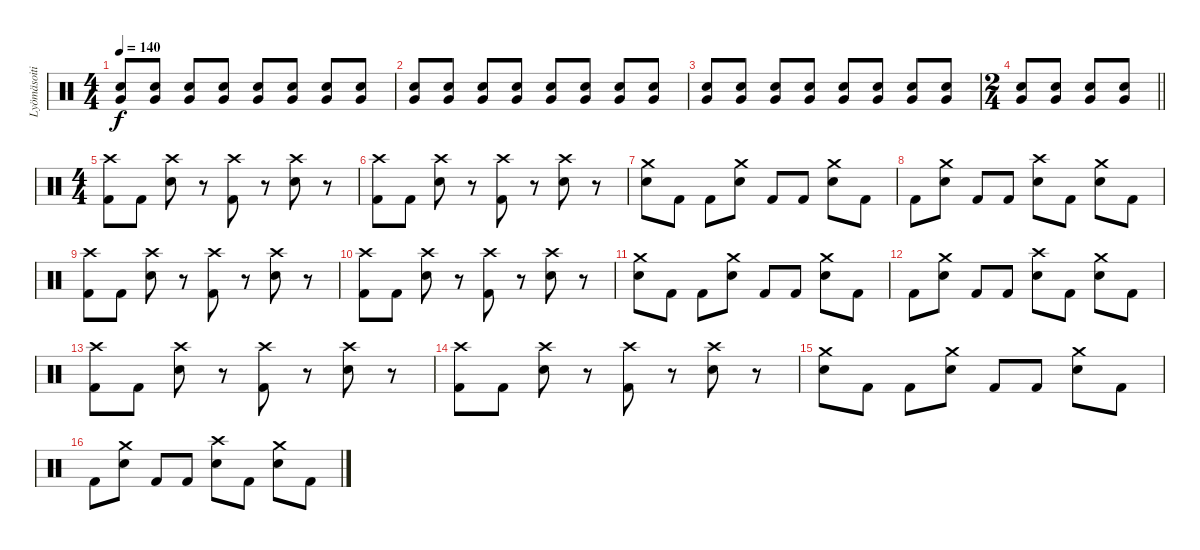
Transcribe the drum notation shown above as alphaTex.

\track ("Lyömäsoitin" "Lyömäsoiti") {instrument percussion}
\staff {score}
\articulation defaults
\ts (4 4)
\tempo 140
\clef neutral
\ks c
("Very Low Tom (hit)" "Electric Snare (hit)").8{dy f} ("Very Low Tom (hit)" "Electric Snare (hit)").8 ("Very Low Tom (hit)" "Electric Snare (hit)").8 ("Very Low Tom (hit)" "Electric Snare (hit)").8 ("Very Low Tom (hit)" "Electric Snare (hit)").8 ("Very Low Tom (hit)" "Electric Snare (hit)").8 ("Very Low Tom (hit)" "Electric Snare (hit)").8 ("Very Low Tom (hit)" "Electric Snare (hit)").8 |
("Very Low Tom (hit)" "Electric Snare (hit)").8 ("Very Low Tom (hit)" "Electric Snare (hit)").8 ("Very Low Tom (hit)" "Electric Snare (hit)").8 ("Very Low Tom (hit)" "Electric Snare (hit)").8 ("Very Low Tom (hit)" "Electric Snare (hit)").8 ("Very Low Tom (hit)" "Electric Snare (hit)").8 ("Very Low Tom (hit)" "Electric Snare (hit)").8 ("Very Low Tom (hit)" "Electric Snare (hit)").8 |
("Very Low Tom (hit)" "Electric Snare (hit)").8 ("Very Low Tom (hit)" "Electric Snare (hit)").8 ("Very Low Tom (hit)" "Electric Snare (hit)").8 ("Very Low Tom (hit)" "Electric Snare (hit)").8 ("Very Low Tom (hit)" "Electric Snare (hit)").8 ("Very Low Tom (hit)" "Electric Snare (hit)").8 ("Very Low Tom (hit)" "Electric Snare (hit)").8 ("Very Low Tom (hit)" "Electric Snare (hit)").8 |
\ts (2 4)
\barLineRight lightlight
("Very Low Tom (hit)" "Electric Snare (hit)").8 ("Very Low Tom (hit)" "Electric Snare (hit)").8 ("Very Low Tom (hit)" "Electric Snare (hit)").8 ("Very Low Tom (hit)" "Electric Snare (hit)").8 |
\ts (4 4)
("Crash high (hit)" "Kick (hit) 2").8 "Kick (hit) 2".8 ("Crash high (hit)" "Electric Snare (hit)").8 r.8 ("Crash high (hit)" "Kick (hit) 2").8 r.8 ("Crash high (hit)" "Electric Snare (hit)").8 r.8 |
("Crash high (hit)" "Kick (hit) 2").8 "Kick (hit) 2".8 ("Crash high (hit)" "Electric Snare (hit)").8 r.8 ("Crash high (hit)" "Kick (hit) 2").8 r.8 ("Crash high (hit)" "Electric Snare (hit)").8 r.8 |
("Crash medium (hit)" "Electric Snare (hit)").8 "Kick (hit) 2".8 "Kick (hit) 2".8 ("Crash medium (hit)" "Electric Snare (hit)").8 "Kick (hit) 2".8 "Kick (hit) 2".8 ("Crash medium (hit)" "Electric Snare (hit)").8 "Kick (hit) 2".8 |
"Kick (hit) 2".8 ("Crash medium (hit)" "Electric Snare (hit)").8 "Kick (hit) 2".8 "Kick (hit) 2".8 ("Crash high (hit)" "Electric Snare (hit)").8 "Kick (hit) 2".8 ("Crash medium (hit)" "Electric Snare (hit)").8 "Kick (hit) 2".8 |
("Crash high (hit)" "Kick (hit) 2").8 "Kick (hit) 2".8 ("Crash high (hit)" "Electric Snare (hit)").8 r.8 ("Crash high (hit)" "Kick (hit) 2").8 r.8 ("Crash high (hit)" "Electric Snare (hit)").8 r.8 |
("Crash high (hit)" "Kick (hit) 2").8 "Kick (hit) 2".8 ("Crash high (hit)" "Electric Snare (hit)").8 r.8 ("Crash high (hit)" "Kick (hit) 2").8 r.8 ("Crash high (hit)" "Electric Snare (hit)").8 r.8 |
("Crash medium (hit)" "Electric Snare (hit)").8 "Kick (hit) 2".8 "Kick (hit) 2".8 ("Crash medium (hit)" "Electric Snare (hit)").8 "Kick (hit) 2".8 "Kick (hit) 2".8 ("Crash medium (hit)" "Electric Snare (hit)").8 "Kick (hit) 2".8 |
"Kick (hit) 2".8 ("Crash medium (hit)" "Electric Snare (hit)").8 "Kick (hit) 2".8 "Kick (hit) 2".8 ("Crash high (hit)" "Electric Snare (hit)").8 "Kick (hit) 2".8 ("Crash medium (hit)" "Electric Snare (hit)").8 "Kick (hit) 2".8 |
("Crash high (hit)" "Kick (hit) 2").8 "Kick (hit) 2".8 ("Crash high (hit)" "Electric Snare (hit)").8 r.8 ("Crash high (hit)" "Kick (hit) 2").8 r.8 ("Crash high (hit)" "Electric Snare (hit)").8 r.8 |
("Crash high (hit)" "Kick (hit) 2").8 "Kick (hit) 2".8 ("Crash high (hit)" "Electric Snare (hit)").8 r.8 ("Crash high (hit)" "Kick (hit) 2").8 r.8 ("Crash high (hit)" "Electric Snare (hit)").8 r.8 |
("Crash medium (hit)" "Electric Snare (hit)").8 "Kick (hit) 2".8 "Kick (hit) 2".8 ("Crash medium (hit)" "Electric Snare (hit)").8 "Kick (hit) 2".8 "Kick (hit) 2".8 ("Crash medium (hit)" "Electric Snare (hit)").8 "Kick (hit) 2".8 |
"Kick (hit) 2".8 ("Crash medium (hit)" "Electric Snare (hit)").8 "Kick (hit) 2".8 "Kick (hit) 2".8 ("Crash high (hit)" "Electric Snare (hit)").8 "Kick (hit) 2".8 ("Crash medium (hit)" "Electric Snare (hit)").8 "Kick (hit) 2".8
